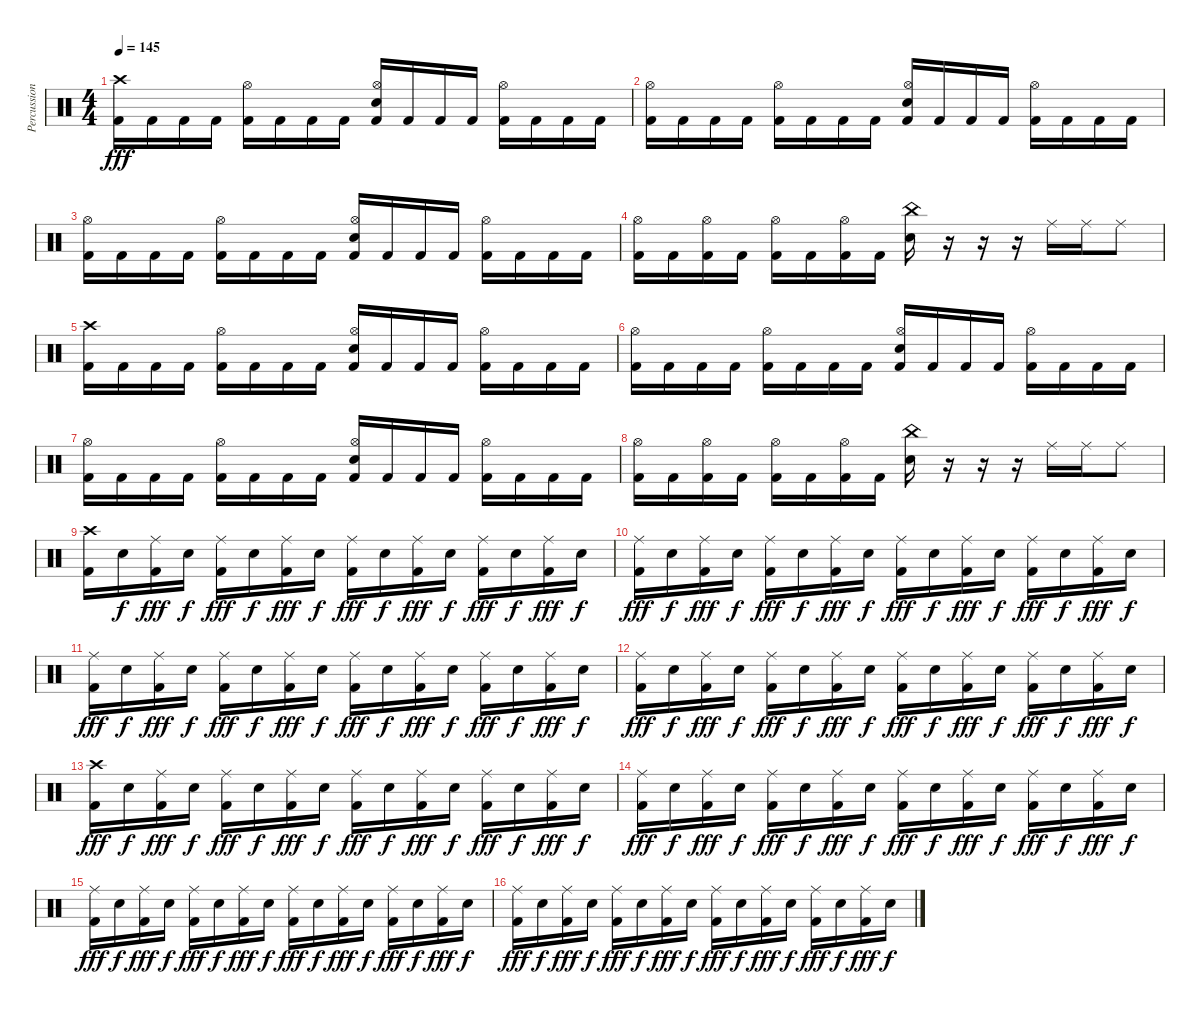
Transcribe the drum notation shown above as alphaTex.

\track ("Percussion" "Percussion") {instrument percussion}
\staff {score}
\articulation defaults
\ts (4 4)
\tempo 145
\clef neutral
\ks c
("Crash high (hit)" "Kick (hit) 2").16{dy fff} "Kick (hit) 2".16 "Kick (hit) 2".16 "Kick (hit) 2".16 ("Hi-Hat (open)" "Kick (hit) 2").16 "Kick (hit) 2".16 "Kick (hit) 2".16 "Kick (hit) 2".16 ("Hi-Hat (open)" "Snare (hit) 2" "Kick (hit) 2").16 "Kick (hit) 2".16 "Kick (hit) 2".16 "Kick (hit) 2".16 ("Hi-Hat (open)" "Kick (hit) 2").16 "Kick (hit) 2".16 "Kick (hit) 2".16 "Kick (hit) 2".16 |
("Hi-Hat (open)" "Kick (hit) 2").16 "Kick (hit) 2".16 "Kick (hit) 2".16 "Kick (hit) 2".16 ("Hi-Hat (open)" "Kick (hit) 2").16 "Kick (hit) 2".16 "Kick (hit) 2".16 "Kick (hit) 2".16 ("Hi-Hat (open)" "Snare (hit) 2" "Kick (hit) 2").16 "Kick (hit) 2".16 "Kick (hit) 2".16 "Kick (hit) 2".16 ("Hi-Hat (open)" "Kick (hit) 2").16 "Kick (hit) 2".16 "Kick (hit) 2".16 "Kick (hit) 2".16 |
("Hi-Hat (open)" "Kick (hit) 2").16 "Kick (hit) 2".16 "Kick (hit) 2".16 "Kick (hit) 2".16 ("Hi-Hat (open)" "Kick (hit) 2").16 "Kick (hit) 2".16 "Kick (hit) 2".16 "Kick (hit) 2".16 ("Hi-Hat (open)" "Snare (hit) 2" "Kick (hit) 2").16 "Kick (hit) 2".16 "Kick (hit) 2".16 "Kick (hit) 2".16 ("Hi-Hat (open)" "Kick (hit) 2").16 "Kick (hit) 2".16 "Kick (hit) 2".16 "Kick (hit) 2".16 |
("Hi-Hat (open)" "Kick (hit) 2").16 "Kick (hit) 2".16 ("Hi-Hat (open)" "Kick (hit) 2").16 "Kick (hit) 2".16 ("Hi-Hat (open)" "Kick (hit) 2").16 "Kick (hit) 2".16 ("Hi-Hat (open)" "Kick (hit) 2").16 "Kick (hit) 2".16 ("China (hit)" "Snare (hit) 2").16 r.16 r.16 r.16 "Ride (middle)".16 "Ride (middle)".16 "Ride (middle)".8 |
("Crash high (hit)" "Kick (hit) 2").16 "Kick (hit) 2".16 "Kick (hit) 2".16 "Kick (hit) 2".16 ("Hi-Hat (open)" "Kick (hit) 2").16 "Kick (hit) 2".16 "Kick (hit) 2".16 "Kick (hit) 2".16 ("Hi-Hat (open)" "Snare (hit) 2" "Kick (hit) 2").16 "Kick (hit) 2".16 "Kick (hit) 2".16 "Kick (hit) 2".16 ("Hi-Hat (open)" "Kick (hit) 2").16 "Kick (hit) 2".16 "Kick (hit) 2".16 "Kick (hit) 2".16 |
("Hi-Hat (open)" "Kick (hit) 2").16 "Kick (hit) 2".16 "Kick (hit) 2".16 "Kick (hit) 2".16 ("Hi-Hat (open)" "Kick (hit) 2").16 "Kick (hit) 2".16 "Kick (hit) 2".16 "Kick (hit) 2".16 ("Hi-Hat (open)" "Snare (hit) 2" "Kick (hit) 2").16 "Kick (hit) 2".16 "Kick (hit) 2".16 "Kick (hit) 2".16 ("Hi-Hat (open)" "Kick (hit) 2").16 "Kick (hit) 2".16 "Kick (hit) 2".16 "Kick (hit) 2".16 |
("Hi-Hat (open)" "Kick (hit) 2").16 "Kick (hit) 2".16 "Kick (hit) 2".16 "Kick (hit) 2".16 ("Hi-Hat (open)" "Kick (hit) 2").16 "Kick (hit) 2".16 "Kick (hit) 2".16 "Kick (hit) 2".16 ("Hi-Hat (open)" "Snare (hit) 2" "Kick (hit) 2").16 "Kick (hit) 2".16 "Kick (hit) 2".16 "Kick (hit) 2".16 ("Hi-Hat (open)" "Kick (hit) 2").16 "Kick (hit) 2".16 "Kick (hit) 2".16 "Kick (hit) 2".16 |
("Hi-Hat (open)" "Kick (hit) 2").16 "Kick (hit) 2".16 ("Hi-Hat (open)" "Kick (hit) 2").16 "Kick (hit) 2".16 ("Hi-Hat (open)" "Kick (hit) 2").16 "Kick (hit) 2".16 ("Hi-Hat (open)" "Kick (hit) 2").16 "Kick (hit) 2".16 ("China (hit)" "Snare (hit) 2").16 r.16 r.16 r.16 "Ride (middle)".16 "Ride (middle)".16 "Ride (middle)".8 |
("Crash high (hit)" "Kick (hit) 2").16 "Snare (hit) 2".16{dy f} ("Ride (middle)" "Kick (hit) 2").16{dy fff} "Snare (hit) 2".16{dy f} ("Ride (middle)" "Kick (hit) 2").16{dy fff} "Snare (hit) 2".16{dy f} ("Ride (middle)" "Kick (hit) 2").16{dy fff} "Snare (hit) 2".16{dy f} ("Ride (middle)" "Kick (hit) 2").16{dy fff} "Snare (hit) 2".16{dy f} ("Ride (middle)" "Kick (hit) 2").16{dy fff} "Snare (hit) 2".16{dy f} ("Ride (middle)" "Kick (hit) 2").16{dy fff} "Snare (hit) 2".16{dy f} ("Ride (middle)" "Kick (hit) 2").16{dy fff} "Snare (hit) 2".16{dy f} |
("Ride (middle)" "Kick (hit) 2").16{dy fff} "Snare (hit) 2".16{dy f} ("Ride (middle)" "Kick (hit) 2").16{dy fff} "Snare (hit) 2".16{dy f} ("Ride (middle)" "Kick (hit) 2").16{dy fff} "Snare (hit) 2".16{dy f} ("Ride (middle)" "Kick (hit) 2").16{dy fff} "Snare (hit) 2".16{dy f} ("Ride (middle)" "Kick (hit) 2").16{dy fff} "Snare (hit) 2".16{dy f} ("Ride (middle)" "Kick (hit) 2").16{dy fff} "Snare (hit) 2".16{dy f} ("Ride (middle)" "Kick (hit) 2").16{dy fff} "Snare (hit) 2".16{dy f} ("Ride (middle)" "Kick (hit) 2").16{dy fff} "Snare (hit) 2".16{dy f} |
("Ride (middle)" "Kick (hit) 2").16{dy fff} "Snare (hit) 2".16{dy f} ("Ride (middle)" "Kick (hit) 2").16{dy fff} "Snare (hit) 2".16{dy f} ("Ride (middle)" "Kick (hit) 2").16{dy fff} "Snare (hit) 2".16{dy f} ("Ride (middle)" "Kick (hit) 2").16{dy fff} "Snare (hit) 2".16{dy f} ("Ride (middle)" "Kick (hit) 2").16{dy fff} "Snare (hit) 2".16{dy f} ("Ride (middle)" "Kick (hit) 2").16{dy fff} "Snare (hit) 2".16{dy f} ("Ride (middle)" "Kick (hit) 2").16{dy fff} "Snare (hit) 2".16{dy f} ("Ride (middle)" "Kick (hit) 2").16{dy fff} "Snare (hit) 2".16{dy f} |
("Ride (middle)" "Kick (hit) 2").16{dy fff} "Snare (hit) 2".16{dy f} ("Ride (middle)" "Kick (hit) 2").16{dy fff} "Snare (hit) 2".16{dy f} ("Ride (middle)" "Kick (hit) 2").16{dy fff} "Snare (hit) 2".16{dy f} ("Ride (middle)" "Kick (hit) 2").16{dy fff} "Snare (hit) 2".16{dy f} ("Ride (middle)" "Kick (hit) 2").16{dy fff} "Snare (hit) 2".16{dy f} ("Ride (middle)" "Kick (hit) 2").16{dy fff} "Snare (hit) 2".16{dy f} ("Ride (middle)" "Kick (hit) 2").16{dy fff} "Snare (hit) 2".16{dy f} ("Ride (middle)" "Kick (hit) 2").16{dy fff} "Snare (hit) 2".16{dy f} |
("Crash high (hit)" "Kick (hit) 2").16{dy fff} "Snare (hit) 2".16{dy f} ("Ride (middle)" "Kick (hit) 2").16{dy fff} "Snare (hit) 2".16{dy f} ("Ride (middle)" "Kick (hit) 2").16{dy fff} "Snare (hit) 2".16{dy f} ("Ride (middle)" "Kick (hit) 2").16{dy fff} "Snare (hit) 2".16{dy f} ("Ride (middle)" "Kick (hit) 2").16{dy fff} "Snare (hit) 2".16{dy f} ("Ride (middle)" "Kick (hit) 2").16{dy fff} "Snare (hit) 2".16{dy f} ("Ride (middle)" "Kick (hit) 2").16{dy fff} "Snare (hit) 2".16{dy f} ("Ride (middle)" "Kick (hit) 2").16{dy fff} "Snare (hit) 2".16{dy f} |
("Ride (middle)" "Kick (hit) 2").16{dy fff} "Snare (hit) 2".16{dy f} ("Ride (middle)" "Kick (hit) 2").16{dy fff} "Snare (hit) 2".16{dy f} ("Ride (middle)" "Kick (hit) 2").16{dy fff} "Snare (hit) 2".16{dy f} ("Ride (middle)" "Kick (hit) 2").16{dy fff} "Snare (hit) 2".16{dy f} ("Ride (middle)" "Kick (hit) 2").16{dy fff} "Snare (hit) 2".16{dy f} ("Ride (middle)" "Kick (hit) 2").16{dy fff} "Snare (hit) 2".16{dy f} ("Ride (middle)" "Kick (hit) 2").16{dy fff} "Snare (hit) 2".16{dy f} ("Ride (middle)" "Kick (hit) 2").16{dy fff} "Snare (hit) 2".16{dy f} |
("Ride (middle)" "Kick (hit) 2").16{dy fff} "Snare (hit) 2".16{dy f} ("Ride (middle)" "Kick (hit) 2").16{dy fff} "Snare (hit) 2".16{dy f} ("Ride (middle)" "Kick (hit) 2").16{dy fff} "Snare (hit) 2".16{dy f} ("Ride (middle)" "Kick (hit) 2").16{dy fff} "Snare (hit) 2".16{dy f} ("Ride (middle)" "Kick (hit) 2").16{dy fff} "Snare (hit) 2".16{dy f} ("Ride (middle)" "Kick (hit) 2").16{dy fff} "Snare (hit) 2".16{dy f} ("Ride (middle)" "Kick (hit) 2").16{dy fff} "Snare (hit) 2".16{dy f} ("Ride (middle)" "Kick (hit) 2").16{dy fff} "Snare (hit) 2".16{dy f} |
("Ride (middle)" "Kick (hit) 2").16{dy fff} "Snare (hit) 2".16{dy f} ("Ride (middle)" "Kick (hit) 2").16{dy fff} "Snare (hit) 2".16{dy f} ("Ride (middle)" "Kick (hit) 2").16{dy fff} "Snare (hit) 2".16{dy f} ("Ride (middle)" "Kick (hit) 2").16{dy fff} "Snare (hit) 2".16{dy f} ("Ride (middle)" "Kick (hit) 2").16{dy fff} "Snare (hit) 2".16{dy f} ("Ride (middle)" "Kick (hit) 2").16{dy fff} "Snare (hit) 2".16{dy f} ("Ride (middle)" "Kick (hit) 2").16{dy fff} "Snare (hit) 2".16{dy f} ("Ride (middle)" "Kick (hit) 2").16{dy fff} "Snare (hit) 2".16{dy f}
